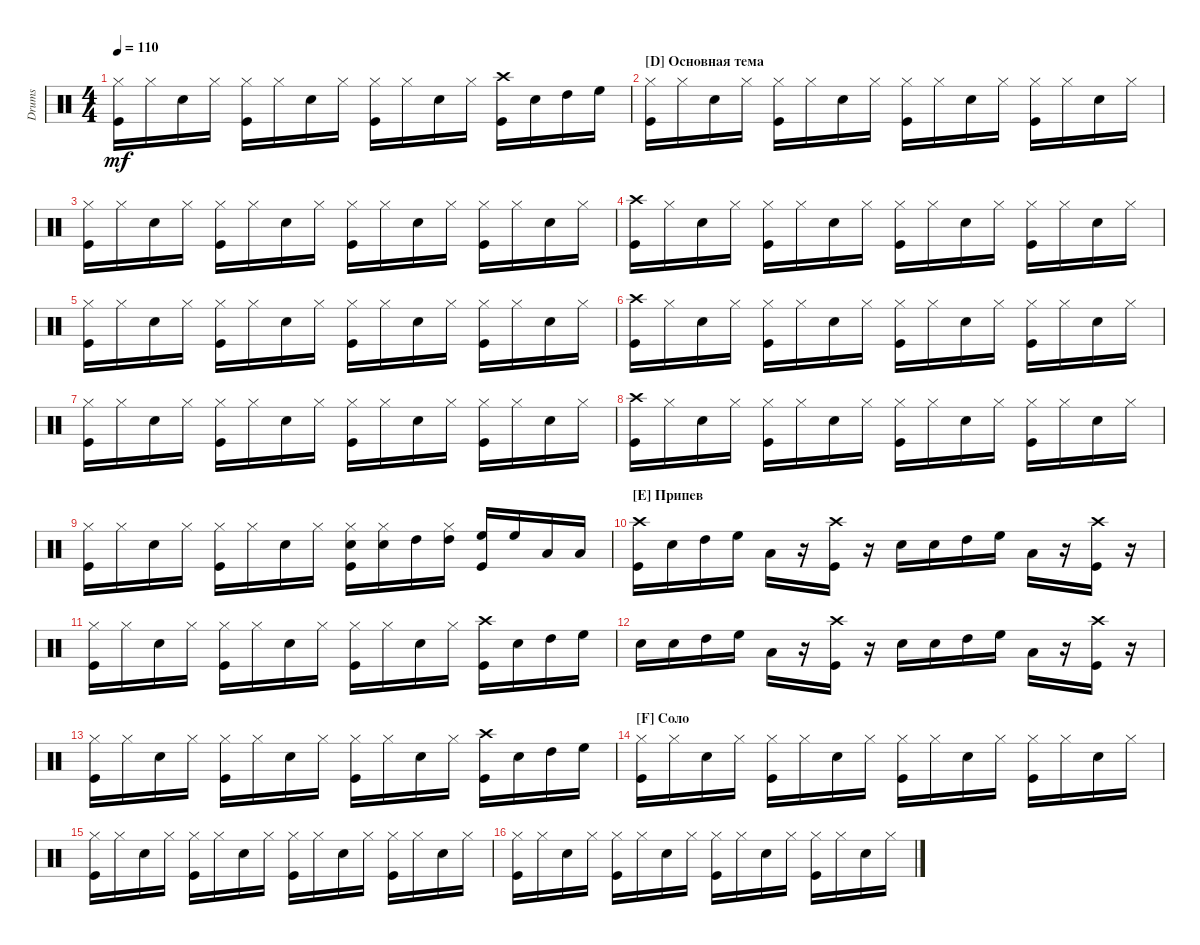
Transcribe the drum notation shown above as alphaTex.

\track ("Drumkit" "Drums") {instrument percussion}
\staff {score}
\articulation defaults
\ts (4 4)
\tempo 110
\clef neutral
\scale
0.333333
\ks c
("Kick (hit)" "Hi-Hat (closed)").16{dy mf} "Hi-Hat (closed)".16 "Snare (hit) 2".16 "Hi-Hat (closed)".16 ("Kick (hit)" "Hi-Hat (closed)").16 "Hi-Hat (closed)".16 "Snare (hit) 2".16 "Hi-Hat (closed)".16 ("Kick (hit)" "Hi-Hat (closed)").16 "Hi-Hat (closed)".16 "Snare (hit) 2".16 "Hi-Hat (closed)".16 ("Kick (hit)" "Crash high (hit)").16 "Snare (hit) 2".16 "High Tom (hit)".16 "High Floor Tom (hit)".16 |
\section ("D" "Основная тема")
\scale
0.333333 ("Kick (hit)" "Hi-Hat (closed)").16 "Hi-Hat (closed)".16 "Snare (hit) 2".16 "Hi-Hat (closed)".16 ("Kick (hit)" "Hi-Hat (closed)").16 "Hi-Hat (closed)".16 "Snare (hit) 2".16 "Hi-Hat (closed)".16 ("Kick (hit)" "Hi-Hat (closed)").16 "Hi-Hat (closed)".16 "Snare (hit) 2".16 "Hi-Hat (closed)".16 ("Kick (hit)" "Hi-Hat (closed)").16 "Hi-Hat (closed)".16 "Snare (hit) 2".16 "Hi-Hat (closed)".16 |
\scale
0.333333 ("Kick (hit)" "Hi-Hat (closed)").16 "Hi-Hat (closed)".16 "Snare (hit) 2".16 "Hi-Hat (closed)".16 ("Kick (hit)" "Hi-Hat (closed)").16 "Hi-Hat (closed)".16 "Snare (hit) 2".16 "Hi-Hat (closed)".16 ("Kick (hit)" "Hi-Hat (closed)").16 "Hi-Hat (closed)".16 "Snare (hit) 2".16 "Hi-Hat (closed)".16 ("Kick (hit)" "Hi-Hat (closed)").16 "Hi-Hat (closed)".16 "Snare (hit) 2".16 "Hi-Hat (closed)".16 |
\scale
0.333333 ("Kick (hit)" "Crash high (hit)").16 "Hi-Hat (closed)".16 "Snare (hit) 2".16 "Hi-Hat (closed)".16 ("Kick (hit)" "Hi-Hat (closed)").16 "Hi-Hat (closed)".16 "Snare (hit) 2".16 "Hi-Hat (closed)".16 ("Kick (hit)" "Hi-Hat (closed)").16 "Hi-Hat (closed)".16 "Snare (hit) 2".16 "Hi-Hat (closed)".16 ("Kick (hit)" "Hi-Hat (closed)").16 "Hi-Hat (closed)".16 "Snare (hit) 2".16 "Hi-Hat (closed)".16 |
\scale
0.333333 ("Kick (hit)" "Hi-Hat (closed)").16 "Hi-Hat (closed)".16 "Snare (hit) 2".16 "Hi-Hat (closed)".16 ("Kick (hit)" "Hi-Hat (closed)").16 "Hi-Hat (closed)".16 "Snare (hit) 2".16 "Hi-Hat (closed)".16 ("Kick (hit)" "Hi-Hat (closed)").16 "Hi-Hat (closed)".16 "Snare (hit) 2".16 "Hi-Hat (closed)".16 ("Kick (hit)" "Hi-Hat (closed)").16 "Hi-Hat (closed)".16 "Snare (hit) 2".16 "Hi-Hat (closed)".16 |
\scale
0.333333 ("Kick (hit)" "Crash high (hit)").16 "Hi-Hat (closed)".16 "Snare (hit) 2".16 "Hi-Hat (closed)".16 ("Kick (hit)" "Hi-Hat (closed)").16 "Hi-Hat (closed)".16 "Snare (hit) 2".16 "Hi-Hat (closed)".16 ("Kick (hit)" "Hi-Hat (closed)").16 "Hi-Hat (closed)".16 "Snare (hit) 2".16 "Hi-Hat (closed)".16 ("Kick (hit)" "Hi-Hat (closed)").16 "Hi-Hat (closed)".16 "Snare (hit) 2".16 "Hi-Hat (closed)".16 |
\scale
0.333333 ("Kick (hit)" "Hi-Hat (closed)").16 "Hi-Hat (closed)".16 "Snare (hit) 2".16 "Hi-Hat (closed)".16 ("Kick (hit)" "Hi-Hat (closed)").16 "Hi-Hat (closed)".16 "Snare (hit) 2".16 "Hi-Hat (closed)".16 ("Kick (hit)" "Hi-Hat (closed)").16 "Hi-Hat (closed)".16 "Snare (hit) 2".16 "Hi-Hat (closed)".16 ("Kick (hit)" "Hi-Hat (closed)").16 "Hi-Hat (closed)".16 "Snare (hit) 2".16 "Hi-Hat (closed)".16 |
\scale
0.333333 ("Kick (hit)" "Crash high (hit)").16 "Hi-Hat (closed)".16 "Snare (hit) 2".16 "Hi-Hat (closed)".16 ("Kick (hit)" "Hi-Hat (closed)").16 "Hi-Hat (closed)".16 "Snare (hit) 2".16 "Hi-Hat (closed)".16 ("Kick (hit)" "Hi-Hat (closed)").16 "Hi-Hat (closed)".16 "Snare (hit) 2".16 "Hi-Hat (closed)".16 ("Kick (hit)" "Hi-Hat (closed)").16 "Hi-Hat (closed)".16 "Snare (hit) 2".16 "Hi-Hat (closed)".16 |
\scale
0.333333 ("Kick (hit)" "Hi-Hat (closed)").16 "Hi-Hat (closed)".16 "Snare (hit) 2".16 "Hi-Hat (closed)".16 ("Kick (hit)" "Hi-Hat (closed)").16 "Hi-Hat (closed)".16 "Snare (hit) 2".16 "Hi-Hat (closed)".16 ("Kick (hit)" "Hi-Hat (closed)" "Snare (hit) 2").16 ("Hi-Hat (closed)" "Snare (hit) 2").16 "High Tom (hit)".16 ("Hi-Hat (closed)" "High Tom (hit)").16 ("Kick (hit)" "High Floor Tom (hit)").16 "High Floor Tom (hit)".16 "Low Tom (hit)".16 "Low Tom (hit)".16 |
\section ("E" "Припев")
\scale
0.333333 ("Crash high (hit)" "Kick (hit)").16 "Snare (hit) 2".16 "High Tom (hit)".16 "High Floor Tom (hit)".16 "Low Tom (hit)".16 r.16 ("Crash high (hit)" "Kick (hit)").16 r.16 "Snare (hit) 2".16 "Snare (hit) 2".16 "High Tom (hit)".16 "High Floor Tom (hit)".16 "Low Tom (hit)".16 r.16 ("Crash high (hit)" "Kick (hit)").16 r.16 |
\scale
0.333333 ("Kick (hit)" "Hi-Hat (closed)").16 "Hi-Hat (closed)".16 "Snare (hit) 2".16 "Hi-Hat (closed)".16 ("Kick (hit)" "Hi-Hat (closed)").16 "Hi-Hat (closed)".16 "Snare (hit) 2".16 "Hi-Hat (closed)".16 ("Kick (hit)" "Hi-Hat (closed)").16 "Hi-Hat (closed)".16 "Snare (hit) 2".16 "Hi-Hat (closed)".16 ("Kick (hit)" "Crash high (hit)").16 "Snare (hit) 2".16 "High Tom (hit)".16 "High Floor Tom (hit)".16 |
\scale
0.333333 "Snare (hit) 2".16 "Snare (hit) 2".16 "High Tom (hit)".16 "High Floor Tom (hit)".16 "Low Tom (hit)".16 r.16 ("Crash high (hit)" "Kick (hit)").16 r.16 "Snare (hit) 2".16 "Snare (hit) 2".16 "High Tom (hit)".16 "High Floor Tom (hit)".16 "Low Tom (hit)".16 r.16 ("Crash high (hit)" "Kick (hit)").16 r.16 |
\scale
0.333333 ("Kick (hit)" "Hi-Hat (closed)").16 "Hi-Hat (closed)".16 "Snare (hit) 2".16 "Hi-Hat (closed)".16 ("Kick (hit)" "Hi-Hat (closed)").16 "Hi-Hat (closed)".16 "Snare (hit) 2".16 "Hi-Hat (closed)".16 ("Kick (hit)" "Hi-Hat (closed)").16 "Hi-Hat (closed)".16 "Snare (hit) 2".16 "Hi-Hat (closed)".16 ("Kick (hit)" "Crash high (hit)").16 "Snare (hit) 2".16 "High Tom (hit)".16 "High Floor Tom (hit)".16 |
\section ("F" "Соло")
\scale
0.333333 ("Kick (hit)" "Hi-Hat (closed)").16 "Hi-Hat (closed)".16 "Snare (hit) 2".16 "Hi-Hat (closed)".16 ("Kick (hit)" "Hi-Hat (closed)").16 "Hi-Hat (closed)".16 "Snare (hit) 2".16 "Hi-Hat (closed)".16 ("Kick (hit)" "Hi-Hat (closed)").16 "Hi-Hat (closed)".16 "Snare (hit) 2".16 "Hi-Hat (closed)".16 ("Kick (hit)" "Hi-Hat (closed)").16 "Hi-Hat (closed)".16 "Snare (hit) 2".16 "Hi-Hat (closed)".16 |
\scale
0.333333 ("Kick (hit)" "Hi-Hat (closed)").16 "Hi-Hat (closed)".16 "Snare (hit) 2".16 "Hi-Hat (closed)".16 ("Kick (hit)" "Hi-Hat (closed)").16 "Hi-Hat (closed)".16 "Snare (hit) 2".16 "Hi-Hat (closed)".16 ("Kick (hit)" "Hi-Hat (closed)").16 "Hi-Hat (closed)".16 "Snare (hit) 2".16 "Hi-Hat (closed)".16 ("Kick (hit)" "Hi-Hat (closed)").16 "Hi-Hat (closed)".16 "Snare (hit) 2".16 "Hi-Hat (closed)".16 |
\scale
0.333333 ("Kick (hit)" "Hi-Hat (closed)").16 "Hi-Hat (closed)".16 "Snare (hit) 2".16 "Hi-Hat (closed)".16 ("Kick (hit)" "Hi-Hat (closed)").16 "Hi-Hat (closed)".16 "Snare (hit) 2".16 "Hi-Hat (closed)".16 ("Kick (hit)" "Hi-Hat (closed)").16 "Hi-Hat (closed)".16 "Snare (hit) 2".16 "Hi-Hat (closed)".16 ("Kick (hit)" "Hi-Hat (closed)").16 "Hi-Hat (closed)".16 "Snare (hit) 2".16 "Hi-Hat (closed)".16
